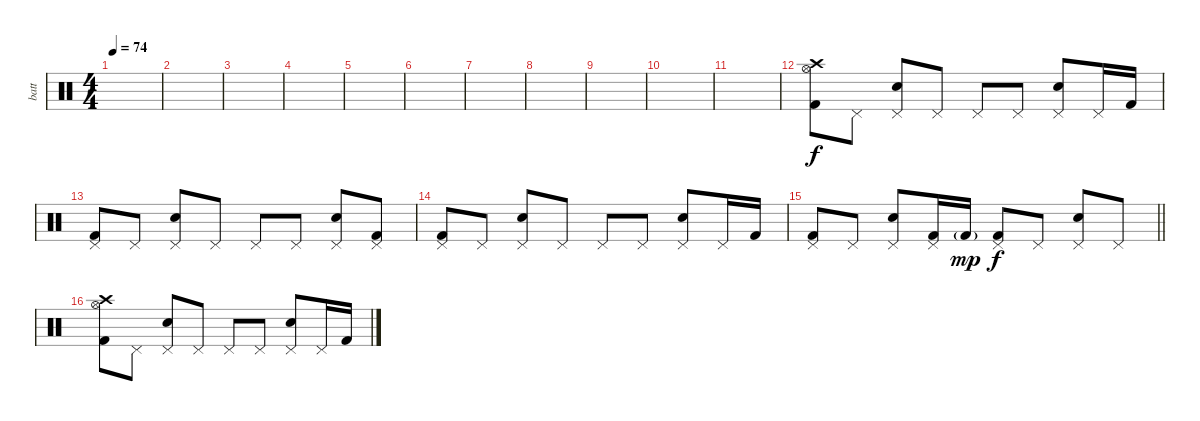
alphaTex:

\track ("batt" "batt") {instrument percussion}
\staff {score}
\articulation defaults
\ts (4 4)
\tempo 74
\clef neutral
\ks c
|
|
|
|
|
|
|
|
|
|
|
("Crash high (hit)" "Hi-Hat (open)" "Kick (hit) 2").8 "Pedal Hi-Hat (hit)".8 ("Pedal Hi-Hat (hit)" "Electric Snare (hit)").8 "Pedal Hi-Hat (hit)".8 "Pedal Hi-Hat (hit)".8 "Pedal Hi-Hat (hit)".8 ("Pedal Hi-Hat (hit)" "Electric Snare (hit)").8 "Pedal Hi-Hat (hit)".16 "Kick (hit) 2".16 |
("Pedal Hi-Hat (hit)" "Kick (hit) 2").8 "Pedal Hi-Hat (hit)".8 ("Pedal Hi-Hat (hit)" "Electric Snare (hit)").8 "Pedal Hi-Hat (hit)".8 "Pedal Hi-Hat (hit)".8 "Pedal Hi-Hat (hit)".8 ("Pedal Hi-Hat (hit)" "Electric Snare (hit)").8 ("Pedal Hi-Hat (hit)" "Kick (hit) 2").8 |
("Pedal Hi-Hat (hit)" "Kick (hit) 2").8 "Pedal Hi-Hat (hit)".8 ("Pedal Hi-Hat (hit)" "Electric Snare (hit)").8 "Pedal Hi-Hat (hit)".8 "Pedal Hi-Hat (hit)".8 "Pedal Hi-Hat (hit)".8 ("Pedal Hi-Hat (hit)" "Electric Snare (hit)").8 "Pedal Hi-Hat (hit)".16 "Kick (hit) 2".16 |
\barLineRight lightlight
("Pedal Hi-Hat (hit)" "Kick (hit) 2").8 "Pedal Hi-Hat (hit)".8 ("Pedal Hi-Hat (hit)" "Electric Snare (hit)").8 ("Pedal Hi-Hat (hit)" "Kick (hit) 2").16 "Kick (hit) 2"{g}.16{dy mp} ("Pedal Hi-Hat (hit)" "Kick (hit) 2").8{dy f} "Pedal Hi-Hat (hit)".8 ("Pedal Hi-Hat (hit)" "Electric Snare (hit)").8 "Pedal Hi-Hat (hit)".8 |
("Crash high (hit)" "Hi-Hat (open)" "Kick (hit) 2").8 "Pedal Hi-Hat (hit)".8 ("Pedal Hi-Hat (hit)" "Electric Snare (hit)").8 "Pedal Hi-Hat (hit)".8 "Pedal Hi-Hat (hit)".8 "Pedal Hi-Hat (hit)".8 ("Pedal Hi-Hat (hit)" "Electric Snare (hit)").8 "Pedal Hi-Hat (hit)".16 "Kick (hit) 2".16
